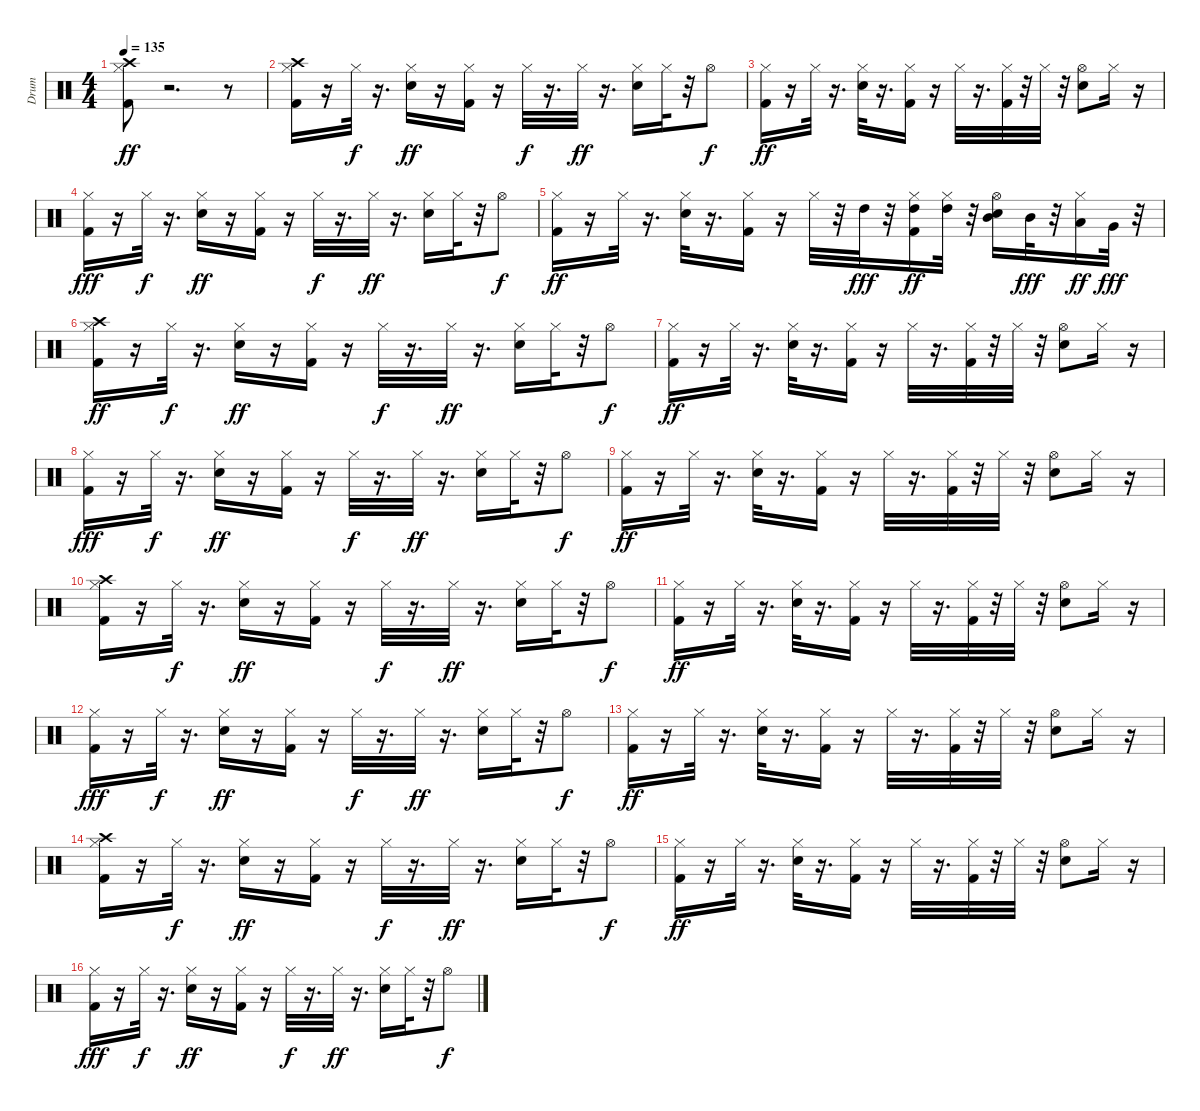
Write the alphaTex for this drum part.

\track ("Drum" "Drum") {instrument percussion}
\staff {score}
\articulation defaults
\ts (4 4)
\tempo 135
\clef neutral
\ks c
("Crash high (hit)" "Kick (hit) 2" "Hi-Hat (closed)").8{dy ff} r.2{d} r.8 |
("Kick (hit) 2" "Hi-Hat (closed)" "Crash high (hit)").16 r.16 "Hi-Hat (closed)".32{dy f} r.16{d} ("Snare (hit) 2" "Hi-Hat (closed)").16{dy ff} r.16 ("Kick (hit) 2" "Hi-Hat (closed)").16 r.16 "Hi-Hat (closed)".32{dy f} r.16{d} "Hi-Hat (closed)".32{dy ff} r.16{d} ("Snare (hit) 2" "Hi-Hat (closed)").16 "Hi-Hat (closed)".32 r.32 "Hi-Hat (open)".8{dy f} |
("Kick (hit) 2" "Hi-Hat (closed)").16{dy ff} r.16 "Hi-Hat (closed)".32 r.16{d} ("Snare (hit) 2" "Hi-Hat (closed)").32 r.16{d} ("Kick (hit) 2" "Hi-Hat (closed)").16 r.16 "Hi-Hat (closed)".32 r.16{d} ("Kick (hit) 2" "Hi-Hat (closed)").32 r.32 "Hi-Hat (closed)".32 r.32 ("Snare (hit) 2" "Hi-Hat (open)").8 "Hi-Hat (closed)".16 r.16 |
("Kick (hit) 2" "Hi-Hat (closed)").16{dy fff} r.16 "Hi-Hat (closed)".32{dy f} r.16{d} ("Snare (hit) 2" "Hi-Hat (closed)").16{dy ff} r.16 ("Kick (hit) 2" "Hi-Hat (closed)").16 r.16 "Hi-Hat (closed)".32{dy f} r.16{d} "Hi-Hat (closed)".32{dy ff} r.16{d} ("Snare (hit) 2" "Hi-Hat (closed)").16 "Hi-Hat (closed)".32 r.32 "Hi-Hat (open)".8{dy f} |
("Kick (hit) 2" "Hi-Hat (closed)").16{dy ff} r.16 "Hi-Hat (closed)".32 r.16{d} ("Snare (hit) 2" "Hi-Hat (closed)").32 r.16{d} ("Kick (hit) 2" "Hi-Hat (closed)").16 r.16 "Hi-Hat (closed)".32 r.32 "High Tom (hit)".32{dy fff} r.32 ("High Tom (hit)" "Kick (hit) 2" "Hi-Hat (closed)").16{dy ff} ("High Tom (hit)" "Hi-Hat (closed)").32 r.32 ("Mid Tom (hit)" "Snare (hit) 2" "Hi-Hat (open)").16 "Mid Tom (hit)".32{dy fff} r.32 ("Low Tom (hit)" "Hi-Hat (closed)").16{dy ff} "Very Low Tom (hit)".32{dy fff} r.32 |
("Kick (hit) 2" "Hi-Hat (closed)" "Crash high (hit)").16{dy ff} r.16 "Hi-Hat (closed)".32{dy f} r.16{d} ("Snare (hit) 2" "Hi-Hat (closed)").16{dy ff} r.16 ("Kick (hit) 2" "Hi-Hat (closed)").16 r.16 "Hi-Hat (closed)".32{dy f} r.16{d} "Hi-Hat (closed)".32{dy ff} r.16{d} ("Snare (hit) 2" "Hi-Hat (closed)").16 "Hi-Hat (closed)".32 r.32 "Hi-Hat (open)".8{dy f} |
("Kick (hit) 2" "Hi-Hat (closed)").16{dy ff} r.16 "Hi-Hat (closed)".32 r.16{d} ("Snare (hit) 2" "Hi-Hat (closed)").32 r.16{d} ("Kick (hit) 2" "Hi-Hat (closed)").16 r.16 "Hi-Hat (closed)".32 r.16{d} ("Kick (hit) 2" "Hi-Hat (closed)").32 r.32 "Hi-Hat (closed)".32 r.32 ("Snare (hit) 2" "Hi-Hat (open)").8 "Hi-Hat (closed)".16 r.16 |
("Kick (hit) 2" "Hi-Hat (closed)").16{dy fff} r.16 "Hi-Hat (closed)".32{dy f} r.16{d} ("Snare (hit) 2" "Hi-Hat (closed)").16{dy ff} r.16 ("Kick (hit) 2" "Hi-Hat (closed)").16 r.16 "Hi-Hat (closed)".32{dy f} r.16{d} "Hi-Hat (closed)".32{dy ff} r.16{d} ("Snare (hit) 2" "Hi-Hat (closed)").16 "Hi-Hat (closed)".32 r.32 "Hi-Hat (open)".8{dy f} |
("Kick (hit) 2" "Hi-Hat (closed)").16{dy ff} r.16 "Hi-Hat (closed)".32 r.16{d} ("Snare (hit) 2" "Hi-Hat (closed)").32 r.16{d} ("Kick (hit) 2" "Hi-Hat (closed)").16 r.16 "Hi-Hat (closed)".32 r.16{d} ("Kick (hit) 2" "Hi-Hat (closed)").32 r.32 "Hi-Hat (closed)".32 r.32 ("Snare (hit) 2" "Hi-Hat (open)").8 "Hi-Hat (closed)".16 r.16 |
("Kick (hit) 2" "Hi-Hat (closed)" "Crash high (hit)").16 r.16 "Hi-Hat (closed)".32{dy f} r.16{d} ("Snare (hit) 2" "Hi-Hat (closed)").16{dy ff} r.16 ("Kick (hit) 2" "Hi-Hat (closed)").16 r.16 "Hi-Hat (closed)".32{dy f} r.16{d} "Hi-Hat (closed)".32{dy ff} r.16{d} ("Snare (hit) 2" "Hi-Hat (closed)").16 "Hi-Hat (closed)".32 r.32 "Hi-Hat (open)".8{dy f} |
("Kick (hit) 2" "Hi-Hat (closed)").16{dy ff} r.16 "Hi-Hat (closed)".32 r.16{d} ("Snare (hit) 2" "Hi-Hat (closed)").32 r.16{d} ("Kick (hit) 2" "Hi-Hat (closed)").16 r.16 "Hi-Hat (closed)".32 r.16{d} ("Kick (hit) 2" "Hi-Hat (closed)").32 r.32 "Hi-Hat (closed)".32 r.32 ("Snare (hit) 2" "Hi-Hat (open)").8 "Hi-Hat (closed)".16 r.16 |
("Kick (hit) 2" "Hi-Hat (closed)").16{dy fff} r.16 "Hi-Hat (closed)".32{dy f} r.16{d} ("Snare (hit) 2" "Hi-Hat (closed)").16{dy ff} r.16 ("Kick (hit) 2" "Hi-Hat (closed)").16 r.16 "Hi-Hat (closed)".32{dy f} r.16{d} "Hi-Hat (closed)".32{dy ff} r.16{d} ("Snare (hit) 2" "Hi-Hat (closed)").16 "Hi-Hat (closed)".32 r.32 "Hi-Hat (open)".8{dy f} |
("Kick (hit) 2" "Hi-Hat (closed)").16{dy ff} r.16 "Hi-Hat (closed)".32 r.16{d} ("Snare (hit) 2" "Hi-Hat (closed)").32 r.16{d} ("Kick (hit) 2" "Hi-Hat (closed)").16 r.16 "Hi-Hat (closed)".32 r.16{d} ("Kick (hit) 2" "Hi-Hat (closed)").32 r.32 "Hi-Hat (closed)".32 r.32 ("Snare (hit) 2" "Hi-Hat (open)").8 "Hi-Hat (closed)".16 r.16 |
("Kick (hit) 2" "Hi-Hat (closed)" "Crash high (hit)").16 r.16 "Hi-Hat (closed)".32{dy f} r.16{d} ("Snare (hit) 2" "Hi-Hat (closed)").16{dy ff} r.16 ("Kick (hit) 2" "Hi-Hat (closed)").16 r.16 "Hi-Hat (closed)".32{dy f} r.16{d} "Hi-Hat (closed)".32{dy ff} r.16{d} ("Snare (hit) 2" "Hi-Hat (closed)").16 "Hi-Hat (closed)".32 r.32 "Hi-Hat (open)".8{dy f} |
("Kick (hit) 2" "Hi-Hat (closed)").16{dy ff} r.16 "Hi-Hat (closed)".32 r.16{d} ("Snare (hit) 2" "Hi-Hat (closed)").32 r.16{d} ("Kick (hit) 2" "Hi-Hat (closed)").16 r.16 "Hi-Hat (closed)".32 r.16{d} ("Kick (hit) 2" "Hi-Hat (closed)").32 r.32 "Hi-Hat (closed)".32 r.32 ("Snare (hit) 2" "Hi-Hat (open)").8 "Hi-Hat (closed)".16 r.16 |
("Kick (hit) 2" "Hi-Hat (closed)").16{dy fff} r.16 "Hi-Hat (closed)".32{dy f} r.16{d} ("Snare (hit) 2" "Hi-Hat (closed)").16{dy ff} r.16 ("Kick (hit) 2" "Hi-Hat (closed)").16 r.16 "Hi-Hat (closed)".32{dy f} r.16{d} "Hi-Hat (closed)".32{dy ff} r.16{d} ("Snare (hit) 2" "Hi-Hat (closed)").16 "Hi-Hat (closed)".32 r.32 "Hi-Hat (open)".8{dy f}
